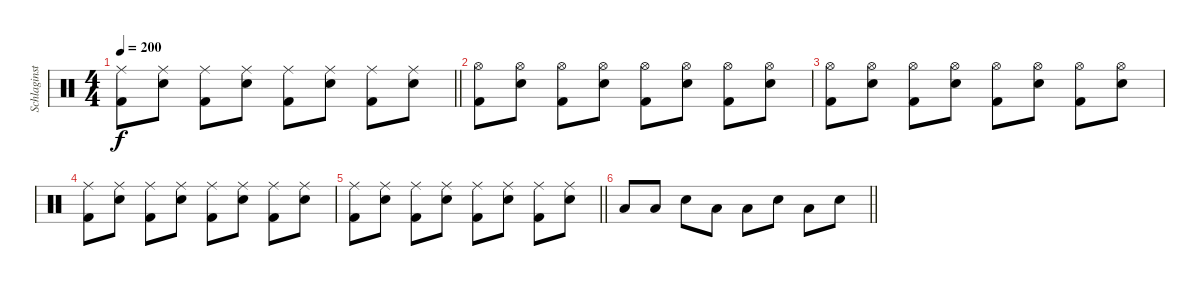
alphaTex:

\track ("Schlaginstrumente - Auswahl" "Schlaginst") {instrument percussion}
\staff {score}
\articulation defaults
\ts (4 4)
\tempo 200
\clef neutral
\barLineRight lightlight
\ks c
("Ride (middle)" "Kick (hit) 2").8{dy f} ("Ride (middle)" "Electric Snare (hit)").8 ("Ride (middle)" "Kick (hit) 2").8 ("Ride (middle)" "Electric Snare (hit)").8 ("Ride (middle)" "Kick (hit) 2").8 ("Ride (middle)" "Electric Snare (hit)").8 ("Ride (middle)" "Kick (hit) 2").8 ("Ride (middle)" "Electric Snare (hit)").8 |
("Hi-Hat (open)" "Kick (hit) 2").8 ("Hi-Hat (open)" "Electric Snare (hit)").8 ("Hi-Hat (open)" "Kick (hit) 2").8 ("Hi-Hat (open)" "Electric Snare (hit)").8 ("Hi-Hat (open)" "Kick (hit) 2").8 ("Hi-Hat (open)" "Electric Snare (hit)").8 ("Hi-Hat (open)" "Kick (hit) 2").8 ("Hi-Hat (open)" "Electric Snare (hit)").8 |
("Hi-Hat (open)" "Kick (hit) 2").8 ("Hi-Hat (open)" "Electric Snare (hit)").8 ("Hi-Hat (open)" "Kick (hit) 2").8 ("Hi-Hat (open)" "Electric Snare (hit)").8 ("Hi-Hat (open)" "Kick (hit) 2").8 ("Hi-Hat (open)" "Electric Snare (hit)").8 ("Hi-Hat (open)" "Kick (hit) 2").8 ("Hi-Hat (open)" "Electric Snare (hit)").8 |
("Ride (middle)" "Kick (hit) 2").8 ("Ride (middle)" "Electric Snare (hit)").8 ("Ride (middle)" "Kick (hit) 2").8 ("Ride (middle)" "Electric Snare (hit)").8 ("Ride (middle)" "Kick (hit) 2").8 ("Ride (middle)" "Electric Snare (hit)").8 ("Ride (middle)" "Kick (hit) 2").8 ("Ride (middle)" "Electric Snare (hit)").8 |
\barLineRight lightlight
("Ride (middle)" "Kick (hit) 2").8 ("Ride (middle)" "Electric Snare (hit)").8 ("Ride (middle)" "Kick (hit) 2").8 ("Ride (middle)" "Electric Snare (hit)").8 ("Ride (middle)" "Kick (hit) 2").8 ("Ride (middle)" "Electric Snare (hit)").8 ("Ride (middle)" "Kick (hit) 2").8 ("Ride (middle)" "Electric Snare (hit)").8 |
\barLineRight lightlight "Low Tom (hit)".8 "Low Tom (hit)".8 "Electric Snare (hit)".8 "Low Tom (hit)".8 "Low Tom (hit)".8 "Electric Snare (hit)".8 "Low Tom (hit)".8 "Electric Snare (hit)".8
